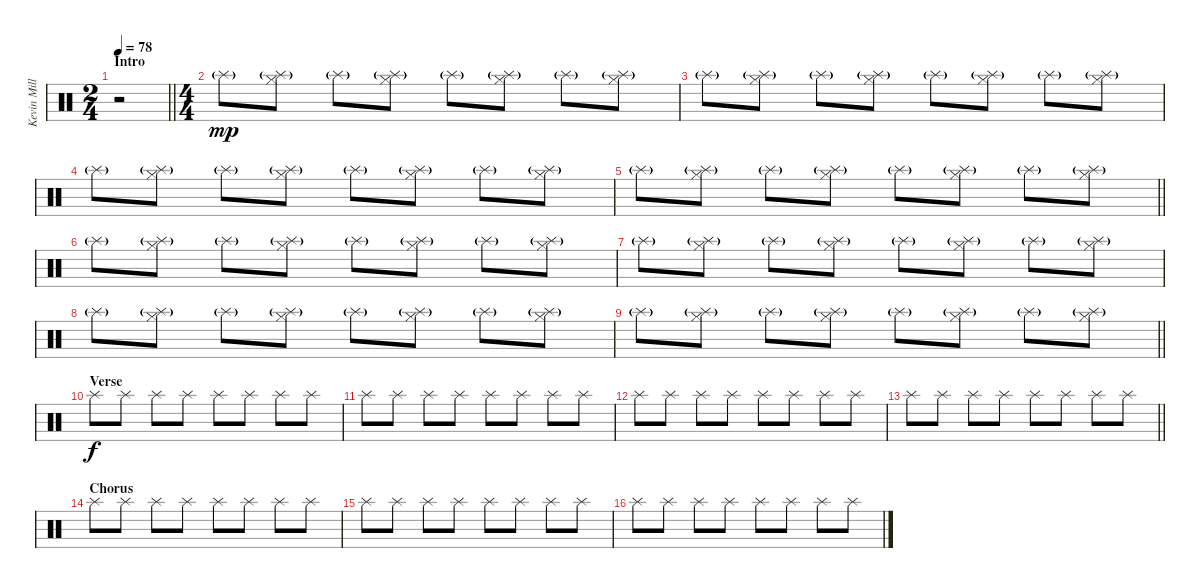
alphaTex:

\track ("Kevin Miller (Drums)" "Kevin Mill") {instrument percussion}
\staff {score}
\articulation defaults
\ts (2 4)
\section ("" "Intro")
\tempo 78
\clef neutral
\barLineRight lightlight
\ks c
r.2{dy mp} |
\ts (4 4)
"Splash (hit)"{g}.8 ("Hi-Hat (closed)" "Splash (hit)"{g}).8 "Splash (hit)"{g}.8 ("Hi-Hat (closed)" "Splash (hit)"{g}).8 "Splash (hit)"{g}.8 ("Hi-Hat (closed)" "Splash (hit)"{g}).8 "Splash (hit)"{g}.8 ("Hi-Hat (closed)" "Splash (hit)"{g}).8 |
"Splash (hit)"{g}.8 ("Hi-Hat (closed)" "Splash (hit)"{g}).8 "Splash (hit)"{g}.8 ("Hi-Hat (closed)" "Splash (hit)"{g}).8 "Splash (hit)"{g}.8 ("Hi-Hat (closed)" "Splash (hit)"{g}).8 "Splash (hit)"{g}.8 ("Hi-Hat (closed)" "Splash (hit)"{g}).8 |
"Splash (hit)"{g}.8 ("Hi-Hat (closed)" "Splash (hit)"{g}).8 "Splash (hit)"{g}.8 ("Hi-Hat (closed)" "Splash (hit)"{g}).8 "Splash (hit)"{g}.8 ("Hi-Hat (closed)" "Splash (hit)"{g}).8 "Splash (hit)"{g}.8 ("Hi-Hat (closed)" "Splash (hit)"{g}).8 |
\barLineRight lightlight "Splash (hit)"{g}.8
("Hi-Hat (closed)" "Splash (hit)"{g}).8 "Splash (hit)"{g}.8 ("Hi-Hat (closed)" "Splash (hit)"{g}).8 "Splash (hit)"{g}.8 ("Hi-Hat (closed)" "Splash (hit)"{g}).8 "Splash (hit)"{g}.8 ("Hi-Hat (closed)" "Splash (hit)"{g}).8 |
"Splash (hit)"{g}.8 ("Hi-Hat (closed)" "Splash (hit)"{g}).8 "Splash (hit)"{g}.8 ("Hi-Hat (closed)" "Splash (hit)"{g}).8 "Splash (hit)"{g}.8 ("Hi-Hat (closed)" "Splash (hit)"{g}).8 "Splash (hit)"{g}.8 ("Hi-Hat (closed)" "Splash (hit)"{g}).8 |
"Splash (hit)"{g}.8 ("Hi-Hat (closed)" "Splash (hit)"{g}).8 "Splash (hit)"{g}.8 ("Hi-Hat (closed)" "Splash (hit)"{g}).8 "Splash (hit)"{g}.8 ("Hi-Hat (closed)" "Splash (hit)"{g}).8 "Splash (hit)"{g}.8 ("Hi-Hat (closed)" "Splash (hit)"{g}).8 |
"Splash (hit)"{g}.8 ("Hi-Hat (closed)" "Splash (hit)"{g}).8 "Splash (hit)"{g}.8 ("Hi-Hat (closed)" "Splash (hit)"{g}).8 "Splash (hit)"{g}.8 ("Hi-Hat (closed)" "Splash (hit)"{g}).8 "Splash (hit)"{g}.8 ("Hi-Hat (closed)" "Splash (hit)"{g}).8 |
\barLineRight lightlight "Splash (hit)"{g}.8
("Hi-Hat (closed)" "Splash (hit)"{g}).8 "Splash (hit)"{g}.8 ("Hi-Hat (closed)" "Splash (hit)"{g}).8 "Splash (hit)"{g}.8 ("Hi-Hat (closed)" "Splash (hit)"{g}).8 "Splash (hit)"{g}.8 ("Hi-Hat (closed)" "Splash (hit)"{g}).8 |
\section ("" "Verse")
"Splash (hit)".8{dy f} "Splash (hit)".8 "Splash (hit)".8 "Splash (hit)".8 "Splash (hit)".8 "Splash (hit)".8 "Splash (hit)".8 "Splash (hit)".8 |
"Splash (hit)".8 "Splash (hit)".8 "Splash (hit)".8 "Splash (hit)".8 "Splash (hit)".8 "Splash (hit)".8 "Splash (hit)".8 "Splash (hit)".8 |
"Splash (hit)".8 "Splash (hit)".8 "Splash (hit)".8 "Splash (hit)".8 "Splash (hit)".8 "Splash (hit)".8 "Splash (hit)".8 "Splash (hit)".8 |
\barLineRight lightlight "Splash (hit)".8 "Splash (hit)".8 "Splash (hit)".8 "Splash (hit)".8 "Splash (hit)".8 "Splash (hit)".8 "Splash (hit)".8 "Splash (hit)".8
|
\section ("" "Chorus")
"Splash (hit)".8 "Splash (hit)".8 "Splash (hit)".8 "Splash (hit)".8 "Splash (hit)".8 "Splash (hit)".8 "Splash (hit)".8 "Splash (hit)".8 |
"Splash (hit)".8 "Splash (hit)".8 "Splash (hit)".8 "Splash (hit)".8 "Splash (hit)".8 "Splash (hit)".8 "Splash (hit)".8 "Splash (hit)".8 |
"Splash (hit)".8 "Splash (hit)".8 "Splash (hit)".8 "Splash (hit)".8 "Splash (hit)".8 "Splash (hit)".8 "Splash (hit)".8 "Splash (hit)".8
